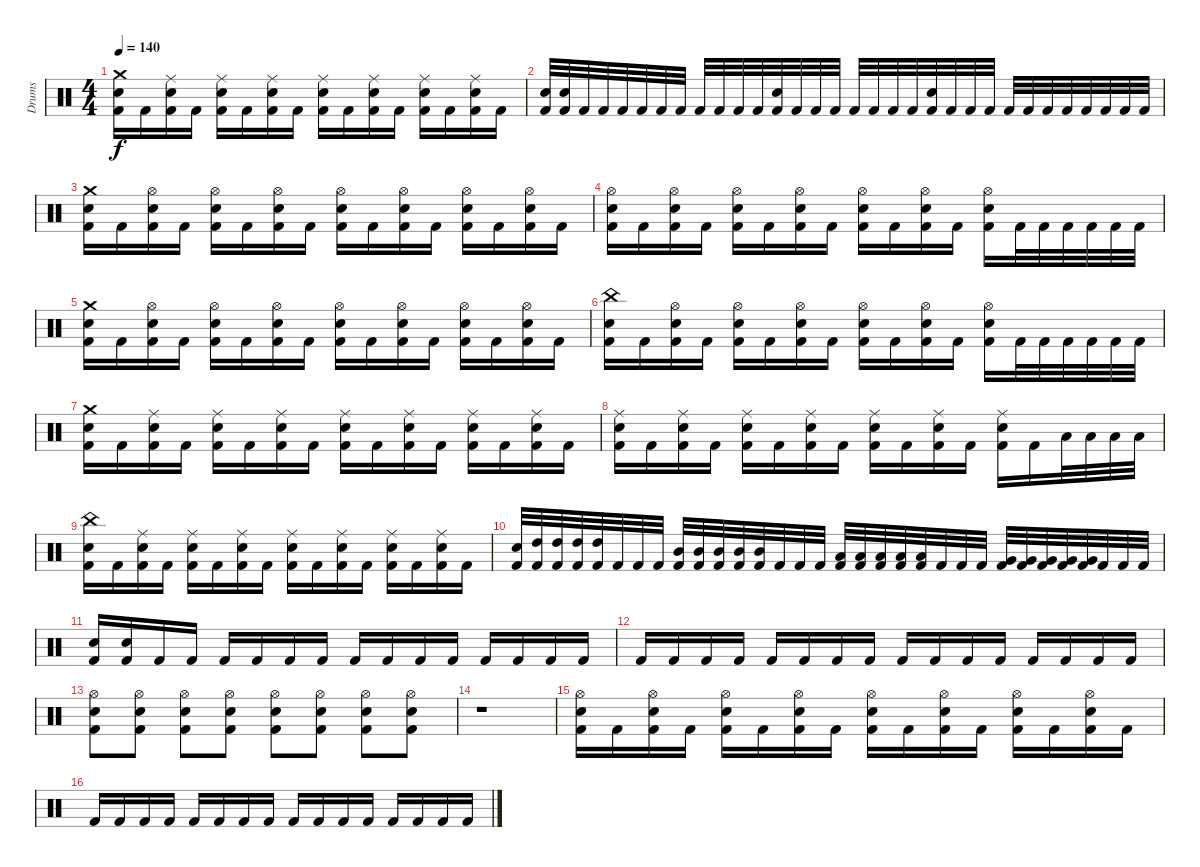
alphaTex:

\track ("Drums" "Drums") {instrument percussion}
\staff {score}
\articulation defaults
\ts (4 4)
\tempo 140
\clef neutral
\ks c
("Crash medium (hit)" "Snare (hit) 2" "Kick (hit) 2").16{dy f} "Kick (hit) 2".16 ("Ride (middle)" "Snare (hit) 2" "Kick (hit) 2").16 "Kick (hit) 2".16 ("Ride (middle)" "Snare (hit) 2" "Kick (hit) 2").16 "Kick (hit) 2".16 ("Ride (middle)" "Snare (hit) 2" "Kick (hit) 2").16 "Kick (hit) 2".16 ("Ride (middle)" "Snare (hit) 2" "Kick (hit) 2").16 "Kick (hit) 2".16 ("Ride (middle)" "Snare (hit) 2" "Kick (hit) 2").16 "Kick (hit) 2".16 ("Ride (middle)" "Snare (hit) 2" "Kick (hit) 2").16 "Kick (hit) 2".16 ("Ride (middle)" "Snare (hit) 2" "Kick (hit) 2").16 "Kick (hit) 2".16 |
("Snare (hit) 2" "Kick (hit) 2").32 ("Snare (hit) 2" "Kick (hit) 2").32 "Kick (hit) 2".32 "Kick (hit) 2".32 "Kick (hit) 2".32 "Kick (hit) 2".32 "Kick (hit) 2".32 "Kick (hit) 2".32 "Kick (hit) 2".32 "Kick (hit) 2".32 "Kick (hit) 2".32 "Kick (hit) 2".32 ("Snare (hit) 2" "Kick (hit) 2").32 "Kick (hit) 2".32 "Kick (hit) 2".32 "Kick (hit) 2".32 "Kick (hit) 2".32 "Kick (hit) 2".32 "Kick (hit) 2".32 "Kick (hit) 2".32 ("Snare (hit) 2" "Kick (hit) 2").32 "Kick (hit) 2".32 "Kick (hit) 2".32 "Kick (hit) 2".32 "Kick (hit) 2".32 "Kick (hit) 2".32 "Kick (hit) 2".32 "Kick (hit) 2".32 "Kick (hit) 2".32 "Kick (hit) 2".32 "Kick (hit) 2".32 "Kick (hit) 2".32 |
("Crash medium (hit)" "Snare (hit) 2" "Kick (hit) 2").16 "Kick (hit) 2".16 ("Hi-Hat (open)" "Snare (hit) 2" "Kick (hit) 2").16 "Kick (hit) 2".16 ("Hi-Hat (open)" "Snare (hit) 2" "Kick (hit) 2").16 "Kick (hit) 2".16 ("Hi-Hat (open)" "Snare (hit) 2" "Kick (hit) 2").16 "Kick (hit) 2".16 ("Hi-Hat (open)" "Snare (hit) 2" "Kick (hit) 2").16 "Kick (hit) 2".16 ("Hi-Hat (open)" "Snare (hit) 2" "Kick (hit) 2").16 "Kick (hit) 2".16 ("Hi-Hat (open)" "Snare (hit) 2" "Kick (hit) 2").16 "Kick (hit) 2".16 ("Hi-Hat (open)" "Snare (hit) 2" "Kick (hit) 2").16 "Kick (hit) 2".16 |
("Hi-Hat (open)" "Snare (hit) 2" "Kick (hit) 2").16 "Kick (hit) 2".16 ("Hi-Hat (open)" "Snare (hit) 2" "Kick (hit) 2").16 "Kick (hit) 2".16 ("Hi-Hat (open)" "Snare (hit) 2" "Kick (hit) 2").16 "Kick (hit) 2".16 ("Hi-Hat (open)" "Snare (hit) 2" "Kick (hit) 2").16 "Kick (hit) 2".16 ("Hi-Hat (open)" "Snare (hit) 2" "Kick (hit) 2").16 "Kick (hit) 2".16 ("Hi-Hat (open)" "Snare (hit) 2" "Kick (hit) 2").16 "Kick (hit) 2".16 ("Hi-Hat (open)" "Snare (hit) 2" "Kick (hit) 2").16 "Kick (hit) 2".32 "Kick (hit) 2".32 "Kick (hit) 2".32 "Kick (hit) 2".32 "Kick (hit) 2".32 "Kick (hit) 2".32 |
("Crash medium (hit)" "Snare (hit) 2" "Kick (hit) 2").16 "Kick (hit) 2".16 ("Hi-Hat (open)" "Snare (hit) 2" "Kick (hit) 2").16 "Kick (hit) 2".16 ("Hi-Hat (open)" "Snare (hit) 2" "Kick (hit) 2").16 "Kick (hit) 2".16 ("Hi-Hat (open)" "Snare (hit) 2" "Kick (hit) 2").16 "Kick (hit) 2".16 ("Hi-Hat (open)" "Snare (hit) 2" "Kick (hit) 2").16 "Kick (hit) 2".16 ("Hi-Hat (open)" "Snare (hit) 2" "Kick (hit) 2").16 "Kick (hit) 2".16 ("Hi-Hat (open)" "Snare (hit) 2" "Kick (hit) 2").16 "Kick (hit) 2".16 ("Hi-Hat (open)" "Snare (hit) 2" "Kick (hit) 2").16 "Kick (hit) 2".16 |
("China (hit)" "Snare (hit) 2" "Kick (hit) 2").16 "Kick (hit) 2".16 ("Hi-Hat (open)" "Snare (hit) 2" "Kick (hit) 2").16 "Kick (hit) 2".16 ("Hi-Hat (open)" "Snare (hit) 2" "Kick (hit) 2").16 "Kick (hit) 2".16 ("Hi-Hat (open)" "Snare (hit) 2" "Kick (hit) 2").16 "Kick (hit) 2".16 ("Hi-Hat (open)" "Snare (hit) 2" "Kick (hit) 2").16 "Kick (hit) 2".16 ("Hi-Hat (open)" "Snare (hit) 2" "Kick (hit) 2").16 "Kick (hit) 2".16 ("Hi-Hat (open)" "Snare (hit) 2" "Kick (hit) 2").16 "Kick (hit) 2".32 "Kick (hit) 2".32 "Kick (hit) 2".32 "Kick (hit) 2".32 "Kick (hit) 2".32 "Kick (hit) 2".32 |
("Crash medium (hit)" "Snare (hit) 2" "Kick (hit) 2").16 "Kick (hit) 2".16 ("Ride (middle)" "Snare (hit) 2" "Kick (hit) 2").16 "Kick (hit) 2".16 ("Ride (middle)" "Snare (hit) 2" "Kick (hit) 2").16 "Kick (hit) 2".16 ("Ride (middle)" "Snare (hit) 2" "Kick (hit) 2").16 "Kick (hit) 2".16 ("Ride (middle)" "Snare (hit) 2" "Kick (hit) 2").16 "Kick (hit) 2".16 ("Ride (middle)" "Snare (hit) 2" "Kick (hit) 2").16 "Kick (hit) 2".16 ("Ride (middle)" "Snare (hit) 2" "Kick (hit) 2").16 "Kick (hit) 2".16 ("Ride (middle)" "Snare (hit) 2" "Kick (hit) 2").16 "Kick (hit) 2".16 |
("Ride (middle)" "Snare (hit) 2" "Kick (hit) 2").16 "Kick (hit) 2".16 ("Ride (middle)" "Snare (hit) 2" "Kick (hit) 2").16 "Kick (hit) 2".16 ("Ride (middle)" "Snare (hit) 2" "Kick (hit) 2").16 "Kick (hit) 2".16 ("Ride (middle)" "Snare (hit) 2" "Kick (hit) 2").16 "Kick (hit) 2".16 ("Ride (middle)" "Snare (hit) 2" "Kick (hit) 2").16 "Kick (hit) 2".16 ("Ride (middle)" "Snare (hit) 2" "Kick (hit) 2").16 "Kick (hit) 2".16 ("Ride (middle)" "Snare (hit) 2" "Kick (hit) 2").16 "Kick (hit) 2".16 "Low Tom (hit)".32 "Low Tom (hit)".32 "Low Tom (hit)".32 "Low Tom (hit)".32 |
("China (hit)" "Snare (hit) 2" "Kick (hit) 2").16 "Kick (hit) 2".16 ("Ride (middle)" "Snare (hit) 2" "Kick (hit) 2").16 "Kick (hit) 2".16 ("Ride (middle)" "Snare (hit) 2" "Kick (hit) 2").16 "Kick (hit) 2".16 ("Ride (middle)" "Snare (hit) 2" "Kick (hit) 2").16 "Kick (hit) 2".16 ("Ride (middle)" "Snare (hit) 2" "Kick (hit) 2").16 "Kick (hit) 2".16 ("Ride (middle)" "Snare (hit) 2" "Kick (hit) 2").16 "Kick (hit) 2".16 ("Ride (middle)" "Snare (hit) 2" "Kick (hit) 2").16 "Kick (hit) 2".16 ("Ride (middle)" "Snare (hit) 2" "Kick (hit) 2").16 "Kick (hit) 2".16 |
("Snare (hit) 2" "Kick (hit) 2").32 ("High Tom (hit)" "Kick (hit) 2").32 ("High Tom (hit)" "Kick (hit) 2").32 ("High Tom (hit)" "Kick (hit) 2").32 ("High Tom (hit)" "Kick (hit) 2").32 "Kick (hit) 2".32 "Kick (hit) 2".32 "Kick (hit) 2".32 ("Mid Tom (hit)" "Kick (hit) 2").32 ("Mid Tom (hit)" "Kick (hit) 2").32 ("Mid Tom (hit)" "Kick (hit) 2").32 ("Mid Tom (hit)" "Kick (hit) 2").32 ("Mid Tom (hit)" "Kick (hit) 2").32 "Kick (hit) 2".32 "Kick (hit) 2".32 "Kick (hit) 2".32 ("Low Tom (hit)" "Kick (hit) 2").32 ("Low Tom (hit)" "Kick (hit) 2").32 ("Low Tom (hit)" "Kick (hit) 2").32 ("Low Tom (hit)" "Kick (hit) 2").32 ("Low Tom (hit)" "Kick (hit) 2").32 "Kick (hit) 2".32 "Kick (hit) 2".32 "Kick (hit) 2".32 ("Very Low Tom (hit)" "Kick (hit) 2").32 ("Very Low Tom (hit)" "Kick (hit) 2").32 ("Very Low Tom (hit)" "Kick (hit) 2").32 ("Very Low Tom (hit)" "Kick (hit) 2").32 ("Very Low Tom (hit)" "Kick (hit) 2").32 "Kick (hit) 2".32 "Kick (hit) 2".32 "Kick (hit) 2".32 |
("Snare (hit) 2" "Kick (hit) 2").16 ("Snare (hit) 2" "Kick (hit) 2").16 "Kick (hit) 2".16 "Kick (hit) 2".16 "Kick (hit) 2".16 "Kick (hit) 2".16 "Kick (hit) 2".16 "Kick (hit) 2".16 "Kick (hit) 2".16 "Kick (hit) 2".16 "Kick (hit) 2".16 "Kick (hit) 2".16 "Kick (hit) 2".16 "Kick (hit) 2".16 "Kick (hit) 2".16 "Kick (hit) 2".16 |
"Kick (hit) 2".16 "Kick (hit) 2".16 "Kick (hit) 2".16 "Kick (hit) 2".16 "Kick (hit) 2".16 "Kick (hit) 2".16 "Kick (hit) 2".16 "Kick (hit) 2".16 "Kick (hit) 2".16 "Kick (hit) 2".16 "Kick (hit) 2".16 "Kick (hit) 2".16 "Kick (hit) 2".16 "Kick (hit) 2".16 "Kick (hit) 2".16 "Kick (hit) 2".16 |
("Hi-Hat (open)" "Snare (hit) 2" "Kick (hit) 2").8 ("Hi-Hat (open)" "Snare (hit) 2" "Kick (hit) 2").8 ("Hi-Hat (open)" "Snare (hit) 2" "Kick (hit) 2").8 ("Hi-Hat (open)" "Snare (hit) 2" "Kick (hit) 2").8 ("Hi-Hat (open)" "Snare (hit) 2" "Kick (hit) 2").8 ("Hi-Hat (open)" "Snare (hit) 2" "Kick (hit) 2").8 ("Hi-Hat (open)" "Snare (hit) 2" "Kick (hit) 2").8 ("Hi-Hat (open)" "Snare (hit) 2" "Kick (hit) 2").8 |
r.1 |
("Hi-Hat (open)" "Snare (hit) 2" "Kick (hit) 2").16 "Kick (hit) 2".16 ("Hi-Hat (open)" "Snare (hit) 2" "Kick (hit) 2").16 "Kick (hit) 2".16 ("Hi-Hat (open)" "Snare (hit) 2" "Kick (hit) 2").16 "Kick (hit) 2".16 ("Hi-Hat (open)" "Snare (hit) 2" "Kick (hit) 2").16 "Kick (hit) 2".16 ("Hi-Hat (open)" "Snare (hit) 2" "Kick (hit) 2").16 "Kick (hit) 2".16 ("Hi-Hat (open)" "Snare (hit) 2" "Kick (hit) 2").16 "Kick (hit) 2".16 ("Hi-Hat (open)" "Snare (hit) 2" "Kick (hit) 2").16 "Kick (hit) 2".16 ("Hi-Hat (open)" "Snare (hit) 2" "Kick (hit) 2").16 "Kick (hit) 2".16 |
"Kick (hit) 2".16 "Kick (hit) 2".16 "Kick (hit) 2".16 "Kick (hit) 2".16 "Kick (hit) 2".16 "Kick (hit) 2".16 "Kick (hit) 2".16 "Kick (hit) 2".16 "Kick (hit) 2".16 "Kick (hit) 2".16 "Kick (hit) 2".16 "Kick (hit) 2".16 "Kick (hit) 2".16 "Kick (hit) 2".16 "Kick (hit) 2".16 "Kick (hit) 2".16
